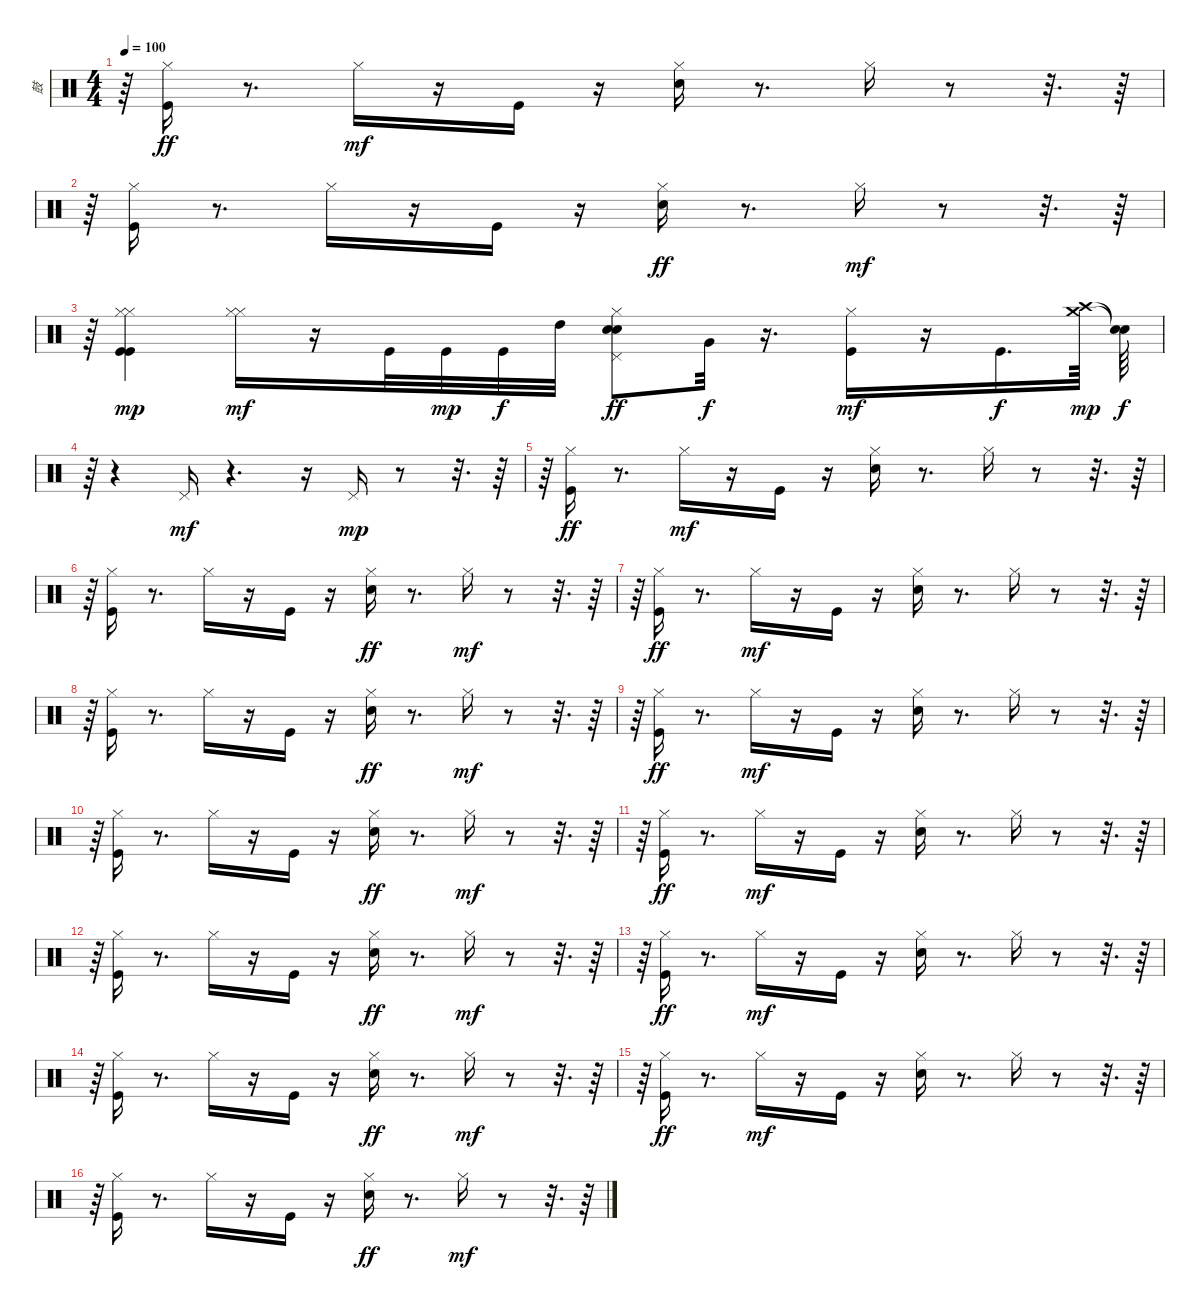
\track ("鼓" "鼓") {instrument percussion}
\staff {score}
\articulation defaults
\ts (4 4)
\tempo 100
\clef neutral
\ks c
r.64{dy mf} ("Kick (hit)" "Hi-Hat (closed)").16{dy ff} r.8{d} "Hi-Hat (closed)".16{dy mf} r.16 "Kick (hit)".16 r.16 ("Electric Snare (hit)" "Hi-Hat (closed)").16 r.8{d} "Hi-Hat (closed)".16 r.8 r.32{d} r.64 |
r.64 ("Kick (hit)" "Hi-Hat (closed)").16 r.8{d} "Hi-Hat (closed)".16 r.16 "Kick (hit)".16 r.16 ("Hi-Hat (closed)" "Electric Snare (hit)").16{dy ff} r.8{d} "Hi-Hat (closed)".16{dy mf} r.8 r.32{d} r.64 |
r.64 ("Kick (hit)" "Kick (hit)" "Hi-Hat (closed)" "Hi-Hat (closed)").4{dy mp} ("Hi-Hat (closed)" "Hi-Hat (closed)").16{dy mf} r.16 "Kick (hit)".32 "Kick (hit)".32{dy mp} "Kick (hit)".32{dy f} "High Tom (hit)".32 ("Pedal Hi-Hat (hit)" "Electric Snare (hit)" "Hi-Hat (closed)" "Electric Snare (hit)").8{dy ff} "Very Low Tom (hit)".32{dy f} r.16{d} ("Kick (hit)" "Hi-Hat (closed)").16{dy mf} r.16 "Kick (hit)".16{d dy f} ("Crash medium (hit)" "Crash high (hit)").64{dy mp} ("Snare (hit)"{t} "Snare (hit)"{t}).64{dy f} |
r.64 r.4 "Pedal Hi-Hat (hit)".16{dy mf} r.4{d} r.16 "Pedal Hi-Hat (hit)".16{dy mp} r.8 r.32{d} r.64 |
r.64 ("Kick (hit)" "Hi-Hat (closed)").16{dy ff} r.8{d} "Hi-Hat (closed)".16{dy mf} r.16 "Kick (hit)".16 r.16 ("Electric Snare (hit)" "Hi-Hat (closed)").16 r.8{d} "Hi-Hat (closed)".16 r.8 r.32{d} r.64 |
r.64 ("Kick (hit)" "Hi-Hat (closed)").16 r.8{d} "Hi-Hat (closed)".16 r.16 "Kick (hit)".16 r.16 ("Hi-Hat (closed)" "Electric Snare (hit)").16{dy ff} r.8{d} "Hi-Hat (closed)".16{dy mf} r.8 r.32{d} r.64 |
r.64 ("Kick (hit)" "Hi-Hat (closed)").16{dy ff} r.8{d} "Hi-Hat (closed)".16{dy mf} r.16 "Kick (hit)".16 r.16 ("Electric Snare (hit)" "Hi-Hat (closed)").16 r.8{d} "Hi-Hat (closed)".16 r.8 r.32{d} r.64 |
r.64 ("Kick (hit)" "Hi-Hat (closed)").16 r.8{d} "Hi-Hat (closed)".16 r.16 "Kick (hit)".16 r.16 ("Hi-Hat (closed)" "Electric Snare (hit)").16{dy ff} r.8{d} "Hi-Hat (closed)".16{dy mf} r.8 r.32{d} r.64 |
r.64 ("Kick (hit)" "Hi-Hat (closed)").16{dy ff} r.8{d} "Hi-Hat (closed)".16{dy mf} r.16 "Kick (hit)".16 r.16 ("Electric Snare (hit)" "Hi-Hat (closed)").16 r.8{d} "Hi-Hat (closed)".16 r.8 r.32{d} r.64 |
r.64 ("Kick (hit)" "Hi-Hat (closed)").16 r.8{d} "Hi-Hat (closed)".16 r.16 "Kick (hit)".16 r.16 ("Hi-Hat (closed)" "Electric Snare (hit)").16{dy ff} r.8{d} "Hi-Hat (closed)".16{dy mf} r.8 r.32{d} r.64 |
r.64 ("Kick (hit)" "Hi-Hat (closed)").16{dy ff} r.8{d} "Hi-Hat (closed)".16{dy mf} r.16 "Kick (hit)".16 r.16 ("Electric Snare (hit)" "Hi-Hat (closed)").16 r.8{d} "Hi-Hat (closed)".16 r.8 r.32{d} r.64 |
r.64 ("Kick (hit)" "Hi-Hat (closed)").16 r.8{d} "Hi-Hat (closed)".16 r.16 "Kick (hit)".16 r.16 ("Hi-Hat (closed)" "Electric Snare (hit)").16{dy ff} r.8{d} "Hi-Hat (closed)".16{dy mf} r.8 r.32{d} r.64 |
r.64 ("Kick (hit)" "Hi-Hat (closed)").16{dy ff} r.8{d} "Hi-Hat (closed)".16{dy mf} r.16 "Kick (hit)".16 r.16 ("Electric Snare (hit)" "Hi-Hat (closed)").16 r.8{d} "Hi-Hat (closed)".16 r.8 r.32{d} r.64 |
r.64 ("Kick (hit)" "Hi-Hat (closed)").16 r.8{d} "Hi-Hat (closed)".16 r.16 "Kick (hit)".16 r.16 ("Hi-Hat (closed)" "Electric Snare (hit)").16{dy ff} r.8{d} "Hi-Hat (closed)".16{dy mf} r.8 r.32{d} r.64 |
r.64 ("Kick (hit)" "Hi-Hat (closed)").16{dy ff} r.8{d} "Hi-Hat (closed)".16{dy mf} r.16 "Kick (hit)".16 r.16 ("Electric Snare (hit)" "Hi-Hat (closed)").16 r.8{d} "Hi-Hat (closed)".16 r.8 r.32{d} r.64 |
r.64 ("Kick (hit)" "Hi-Hat (closed)").16 r.8{d} "Hi-Hat (closed)".16 r.16 "Kick (hit)".16 r.16 ("Hi-Hat (closed)" "Electric Snare (hit)").16{dy ff} r.8{d} "Hi-Hat (closed)".16{dy mf} r.8 r.32{d} r.64
